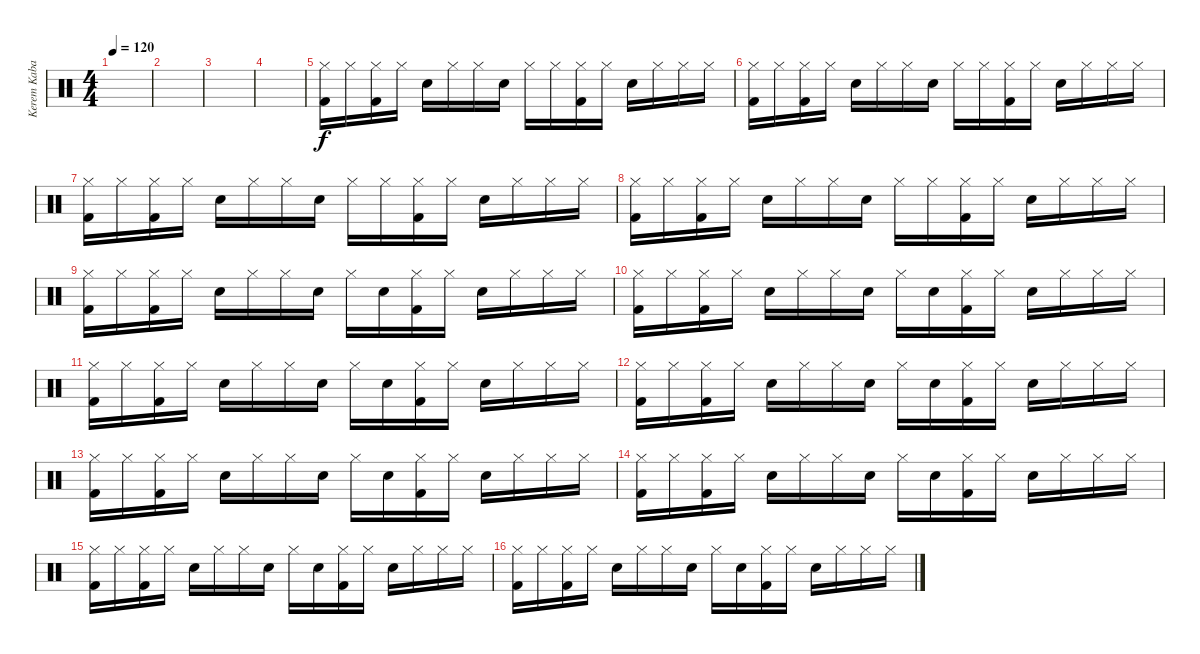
\track ("Kerem Kabadayı" "Kerem Kaba") {instrument percussion}
\staff {score}
\articulation defaults
\ts (4 4)
\tempo 120
\clef neutral
\ks c
|
|
|
|
("Hi-Hat (closed)" "Kick (hit) 2").16 "Hi-Hat (closed)".16 ("Hi-Hat (closed)" "Kick (hit) 2").16 "Hi-Hat (closed)".16 "Electric Snare (hit)".16 "Hi-Hat (closed)".16 "Hi-Hat (closed)".16 "Electric Snare (hit)".16 "Hi-Hat (closed)".16 "Hi-Hat (closed)".16 ("Hi-Hat (closed)" "Kick (hit) 2").16 "Hi-Hat (closed)".16 "Electric Snare (hit)".16 "Hi-Hat (closed)".16 "Hi-Hat (closed)".16 "Hi-Hat (closed)".16 |
("Hi-Hat (closed)" "Kick (hit) 2").16 "Hi-Hat (closed)".16 ("Hi-Hat (closed)" "Kick (hit) 2").16 "Hi-Hat (closed)".16 "Electric Snare (hit)".16 "Hi-Hat (closed)".16 "Hi-Hat (closed)".16 "Electric Snare (hit)".16 "Hi-Hat (closed)".16 "Hi-Hat (closed)".16 ("Hi-Hat (closed)" "Kick (hit) 2").16 "Hi-Hat (closed)".16 "Electric Snare (hit)".16 "Hi-Hat (closed)".16 "Hi-Hat (closed)".16 "Hi-Hat (closed)".16 |
("Hi-Hat (closed)" "Kick (hit) 2").16 "Hi-Hat (closed)".16 ("Hi-Hat (closed)" "Kick (hit) 2").16 "Hi-Hat (closed)".16 "Electric Snare (hit)".16 "Hi-Hat (closed)".16 "Hi-Hat (closed)".16 "Electric Snare (hit)".16 "Hi-Hat (closed)".16 "Hi-Hat (closed)".16 ("Hi-Hat (closed)" "Kick (hit) 2").16 "Hi-Hat (closed)".16 "Electric Snare (hit)".16 "Hi-Hat (closed)".16 "Hi-Hat (closed)".16 "Hi-Hat (closed)".16 |
("Hi-Hat (closed)" "Kick (hit) 2").16 "Hi-Hat (closed)".16 ("Hi-Hat (closed)" "Kick (hit) 2").16 "Hi-Hat (closed)".16 "Electric Snare (hit)".16 "Hi-Hat (closed)".16 "Hi-Hat (closed)".16 "Electric Snare (hit)".16 "Hi-Hat (closed)".16 "Hi-Hat (closed)".16 ("Hi-Hat (closed)" "Kick (hit) 2").16 "Hi-Hat (closed)".16 "Electric Snare (hit)".16 "Hi-Hat (closed)".16 "Hi-Hat (closed)".16 "Hi-Hat (closed)".16 |
("Hi-Hat (closed)" "Kick (hit) 2").16 "Hi-Hat (closed)".16 ("Hi-Hat (closed)" "Kick (hit) 2").16 "Hi-Hat (closed)".16 "Electric Snare (hit)".16 "Hi-Hat (closed)".16 "Hi-Hat (closed)".16 "Electric Snare (hit)".16 "Hi-Hat (closed)".16 "Electric Snare (hit)".16 ("Hi-Hat (closed)" "Kick (hit) 2").16 "Hi-Hat (closed)".16 "Electric Snare (hit)".16 "Hi-Hat (closed)".16 "Hi-Hat (closed)".16 "Hi-Hat (closed)".16 |
("Hi-Hat (closed)" "Kick (hit) 2").16 "Hi-Hat (closed)".16 ("Hi-Hat (closed)" "Kick (hit) 2").16 "Hi-Hat (closed)".16 "Electric Snare (hit)".16 "Hi-Hat (closed)".16 "Hi-Hat (closed)".16 "Electric Snare (hit)".16 "Hi-Hat (closed)".16 "Electric Snare (hit)".16 ("Hi-Hat (closed)" "Kick (hit) 2").16 "Hi-Hat (closed)".16 "Electric Snare (hit)".16 "Hi-Hat (closed)".16 "Hi-Hat (closed)".16 "Hi-Hat (closed)".16 |
("Hi-Hat (closed)" "Kick (hit) 2").16 "Hi-Hat (closed)".16 ("Hi-Hat (closed)" "Kick (hit) 2").16 "Hi-Hat (closed)".16 "Electric Snare (hit)".16 "Hi-Hat (closed)".16 "Hi-Hat (closed)".16 "Electric Snare (hit)".16 "Hi-Hat (closed)".16 "Electric Snare (hit)".16 ("Hi-Hat (closed)" "Kick (hit) 2").16 "Hi-Hat (closed)".16 "Electric Snare (hit)".16 "Hi-Hat (closed)".16 "Hi-Hat (closed)".16 "Hi-Hat (closed)".16 |
("Hi-Hat (closed)" "Kick (hit) 2").16 "Hi-Hat (closed)".16 ("Hi-Hat (closed)" "Kick (hit) 2").16 "Hi-Hat (closed)".16 "Electric Snare (hit)".16 "Hi-Hat (closed)".16 "Hi-Hat (closed)".16 "Electric Snare (hit)".16 "Hi-Hat (closed)".16 "Electric Snare (hit)".16 ("Hi-Hat (closed)" "Kick (hit) 2").16 "Hi-Hat (closed)".16 "Electric Snare (hit)".16 "Hi-Hat (closed)".16 "Hi-Hat (closed)".16 "Hi-Hat (closed)".16 |
("Hi-Hat (closed)" "Kick (hit) 2").16 "Hi-Hat (closed)".16 ("Hi-Hat (closed)" "Kick (hit) 2").16 "Hi-Hat (closed)".16 "Electric Snare (hit)".16 "Hi-Hat (closed)".16 "Hi-Hat (closed)".16 "Electric Snare (hit)".16 "Hi-Hat (closed)".16 "Electric Snare (hit)".16 ("Hi-Hat (closed)" "Kick (hit) 2").16 "Hi-Hat (closed)".16 "Electric Snare (hit)".16 "Hi-Hat (closed)".16 "Hi-Hat (closed)".16 "Hi-Hat (closed)".16 |
("Hi-Hat (closed)" "Kick (hit) 2").16 "Hi-Hat (closed)".16 ("Hi-Hat (closed)" "Kick (hit) 2").16 "Hi-Hat (closed)".16 "Electric Snare (hit)".16 "Hi-Hat (closed)".16 "Hi-Hat (closed)".16 "Electric Snare (hit)".16 "Hi-Hat (closed)".16 "Electric Snare (hit)".16 ("Hi-Hat (closed)" "Kick (hit) 2").16 "Hi-Hat (closed)".16 "Electric Snare (hit)".16 "Hi-Hat (closed)".16 "Hi-Hat (closed)".16 "Hi-Hat (closed)".16 |
("Hi-Hat (closed)" "Kick (hit) 2").16 "Hi-Hat (closed)".16 ("Hi-Hat (closed)" "Kick (hit) 2").16 "Hi-Hat (closed)".16 "Electric Snare (hit)".16 "Hi-Hat (closed)".16 "Hi-Hat (closed)".16 "Electric Snare (hit)".16 "Hi-Hat (closed)".16 "Electric Snare (hit)".16 ("Hi-Hat (closed)" "Kick (hit) 2").16 "Hi-Hat (closed)".16 "Electric Snare (hit)".16 "Hi-Hat (closed)".16 "Hi-Hat (closed)".16 "Hi-Hat (closed)".16 |
("Hi-Hat (closed)" "Kick (hit) 2").16 "Hi-Hat (closed)".16 ("Hi-Hat (closed)" "Kick (hit) 2").16 "Hi-Hat (closed)".16 "Electric Snare (hit)".16 "Hi-Hat (closed)".16 "Hi-Hat (closed)".16 "Electric Snare (hit)".16 "Hi-Hat (closed)".16 "Electric Snare (hit)".16 ("Hi-Hat (closed)" "Kick (hit) 2").16 "Hi-Hat (closed)".16 "Electric Snare (hit)".16 "Hi-Hat (closed)".16 "Hi-Hat (closed)".16 "Hi-Hat (closed)".16
